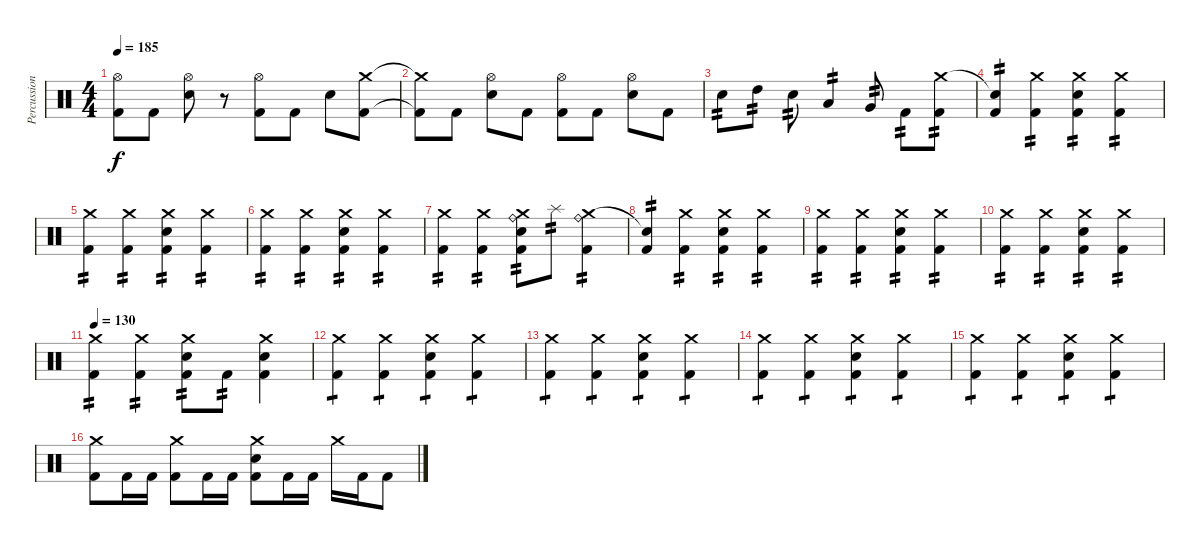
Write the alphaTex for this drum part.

\track ("Percussion" "Percussion") {instrument percussion}
\staff {score}
\articulation defaults
\ts (4 4)
\tempo 185
\clef neutral
\ks c
("Hi-Hat (open)" "Kick (hit) 2").8{dy f} "Kick (hit) 2".8 ("Hi-Hat (open)" "Electric Snare (hit)").8 r.8 ("Hi-Hat (open)" "Kick (hit) 2").8 "Kick (hit) 2".8 "Electric Snare (hit)".8 ("Crash medium (hit)" "Kick (hit) 2").8 |
("Crash medium (hit)"{t} "Kick (hit) 2"{t}).8 "Kick (hit) 2".8 ("Hi-Hat (open)" "Electric Snare (hit)").8 "Kick (hit) 2".8 ("Hi-Hat (open)" "Kick (hit) 2").8 "Kick (hit) 2".8 ("Hi-Hat (open)" "Electric Snare (hit)").8 "Kick (hit) 2".8 |
"Electric Snare (hit)".8{tp 2} "High Tom (hit)".8{tp 2} "Electric Snare (hit)".8{tp 2} "Low Tom (hit)".4{tp 2} "Very Low Tom (hit)".8{tp 2} "Kick (hit) 2".8{tp 2} ("Crash medium (hit)" "Kick (hit) 2").8{tp 2} |
("Snare (hit)"{t} "Kick (hit) 2").4{tp 2} ("Crash medium (hit)" "Kick (hit) 2").4{tp 2} ("Crash medium (hit)" "Electric Snare (hit)" "Kick (hit) 2").4{tp 2} ("Crash medium (hit)" "Kick (hit) 2").4{tp 2} |
("Crash medium (hit)" "Kick (hit) 2").4{tp 2} ("Crash medium (hit)" "Kick (hit) 2").4{tp 2} ("Crash medium (hit)" "Electric Snare (hit)" "Kick (hit) 2").4{tp 2} ("Crash medium (hit)" "Kick (hit) 2").4{tp 2} |
("Crash medium (hit)" "Kick (hit) 2").4{tp 2} ("Crash medium (hit)" "Kick (hit) 2").4{tp 2} ("Crash medium (hit)" "Electric Snare (hit)" "Kick (hit) 2").4{tp 2} ("Crash medium (hit)" "Kick (hit) 2").4{tp 2} |
("Crash medium (hit)" "Kick (hit) 2").4{tp 2} ("Crash medium (hit)" "Kick (hit) 2").4{tp 2} ("Crash medium (hit)" "Electric Snare (hit)" "Ride (bell)" "Kick (hit) 2").8{tp 2} "Splash (hit)".8{tp 2} ("Crash medium (hit)" "Ride (bell)" "Kick (hit) 2").4{tp 2} |
("Snare (hit)"{t} "Kick (hit) 2").4{tp 2} ("Crash medium (hit)" "Kick (hit) 2").4{tp 2} ("Crash medium (hit)" "Electric Snare (hit)" "Kick (hit) 2").4{tp 2} ("Crash medium (hit)" "Kick (hit) 2").4{tp 2} |
("Crash medium (hit)" "Kick (hit) 2").4{tp 2} ("Crash medium (hit)" "Kick (hit) 2").4{tp 2} ("Crash medium (hit)" "Electric Snare (hit)" "Kick (hit) 2").4{tp 2} ("Crash medium (hit)" "Kick (hit) 2").4{tp 2} |
("Crash medium (hit)" "Kick (hit) 2").4{tp 2} ("Crash medium (hit)" "Kick (hit) 2").4{tp 2} ("Crash medium (hit)" "Electric Snare (hit)" "Kick (hit) 2").4{tp 2} ("Crash medium (hit)" "Kick (hit) 2").4{tp 2} |
\tempo 130
("Crash medium (hit)" "Kick (hit) 2").4{tp 2} ("Crash medium (hit)" "Kick (hit) 2").4{tp 2} ("Crash medium (hit)" "Electric Snare (hit)" "Kick (hit) 2").8{tp 2} "Kick (hit) 2".8{tp 2} ("Crash medium (hit)" "Electric Snare (hit)" "Kick (hit) 2").4 |
("Crash medium (hit)" "Kick (hit) 2").4{tp 1} ("Crash medium (hit)" "Kick (hit) 2").4{tp 1} ("Crash medium (hit)" "Electric Snare (hit)" "Kick (hit) 2").4{tp 1} ("Crash medium (hit)" "Kick (hit) 2").4{tp 1} |
("Crash medium (hit)" "Kick (hit) 2").4{tp 1} ("Crash medium (hit)" "Kick (hit) 2").4{tp 1} ("Crash medium (hit)" "Electric Snare (hit)" "Kick (hit) 2").4{tp 1} ("Crash medium (hit)" "Kick (hit) 2").4{tp 1} |
("Crash medium (hit)" "Kick (hit) 2").4{tp 1} ("Crash medium (hit)" "Kick (hit) 2").4{tp 1} ("Crash medium (hit)" "Electric Snare (hit)" "Kick (hit) 2").4{tp 1} ("Crash medium (hit)" "Kick (hit) 2").4{tp 1} |
("Crash medium (hit)" "Kick (hit) 2").4{tp 1} ("Crash medium (hit)" "Kick (hit) 2").4{tp 1} ("Crash medium (hit)" "Electric Snare (hit)" "Kick (hit) 2").4{tp 1} ("Crash medium (hit)" "Kick (hit) 2").4{tp 1} |
("Crash medium (hit)" "Kick (hit) 2").8 "Kick (hit) 2".16 "Kick (hit) 2".16 ("Crash medium (hit)" "Kick (hit) 2").8 "Kick (hit) 2".16 "Kick (hit) 2".16 ("Crash medium (hit)" "Electric Snare (hit)" "Kick (hit) 2").8 "Kick (hit) 2".16 "Kick (hit) 2".16 "Crash medium (hit)".16 "Kick (hit) 2".16 "Kick (hit) 2".8
